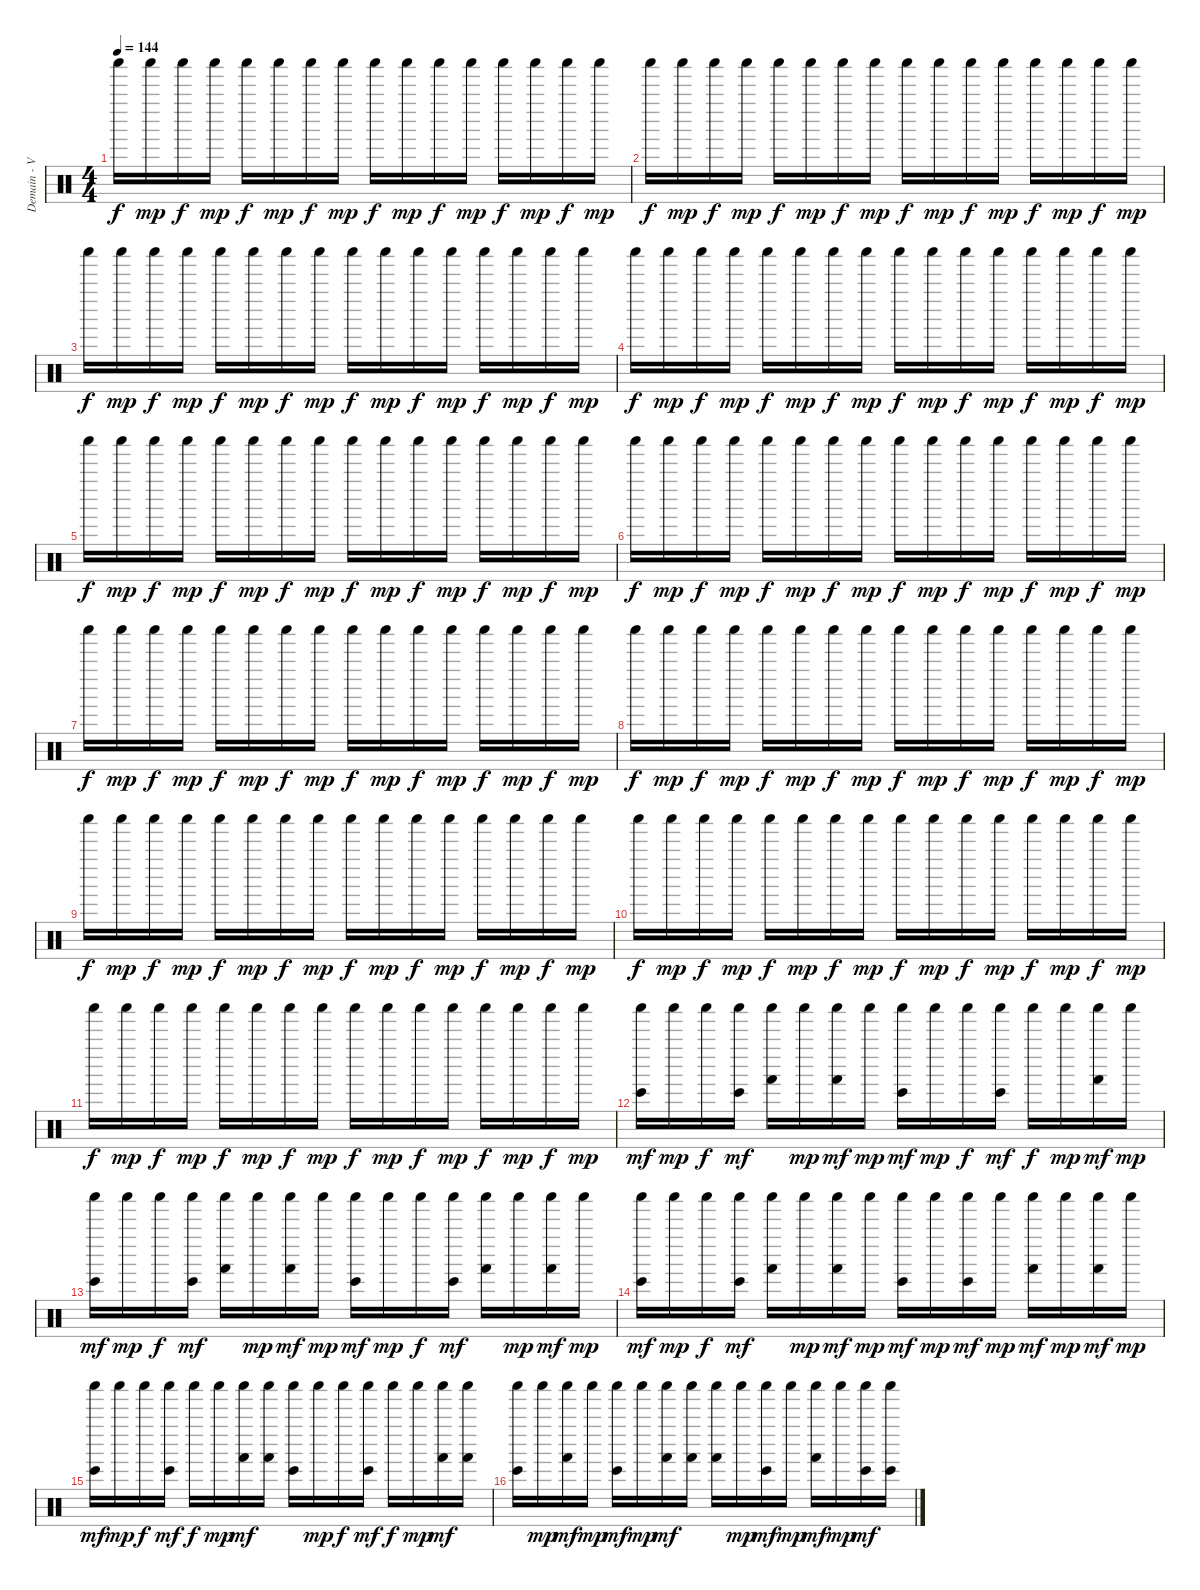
\track ("Demain - Various Perc." "Demain - V") {instrument percussion}
\staff {score}
\articulation defaults
\ts (4 4)
\tempo 144
\clef neutral
\ks c "Shaker (hit)".16{dy f} "Shaker (hit)".16{dy mp} "Shaker (hit)".16{dy f} "Shaker (hit)".16{dy mp} "Shaker (hit)".16{dy f} "Shaker (hit)".16{dy mp} "Shaker (hit)".16{dy f} "Shaker (hit)".16{dy mp} "Shaker (hit)".16{dy f} "Shaker (hit)".16{dy mp} "Shaker (hit)".16{dy f} "Shaker (hit)".16{dy mp} "Shaker (hit)".16{dy f} "Shaker (hit)".16{dy mp} "Shaker (hit)".16{dy f} "Shaker (hit)".16{dy mp}
|
"Shaker (hit)".16{dy f} "Shaker (hit)".16{dy mp} "Shaker (hit)".16{dy f} "Shaker (hit)".16{dy mp} "Shaker (hit)".16{dy f} "Shaker (hit)".16{dy mp} "Shaker (hit)".16{dy f} "Shaker (hit)".16{dy mp} "Shaker (hit)".16{dy f} "Shaker (hit)".16{dy mp} "Shaker (hit)".16{dy f} "Shaker (hit)".16{dy mp} "Shaker (hit)".16{dy f} "Shaker (hit)".16{dy mp} "Shaker (hit)".16{dy f} "Shaker (hit)".16{dy mp} |
"Shaker (hit)".16{dy f} "Shaker (hit)".16{dy mp} "Shaker (hit)".16{dy f} "Shaker (hit)".16{dy mp} "Shaker (hit)".16{dy f} "Shaker (hit)".16{dy mp} "Shaker (hit)".16{dy f} "Shaker (hit)".16{dy mp} "Shaker (hit)".16{dy f} "Shaker (hit)".16{dy mp} "Shaker (hit)".16{dy f} "Shaker (hit)".16{dy mp} "Shaker (hit)".16{dy f} "Shaker (hit)".16{dy mp} "Shaker (hit)".16{dy f} "Shaker (hit)".16{dy mp} |
"Shaker (hit)".16{dy f} "Shaker (hit)".16{dy mp} "Shaker (hit)".16{dy f} "Shaker (hit)".16{dy mp} "Shaker (hit)".16{dy f} "Shaker (hit)".16{dy mp} "Shaker (hit)".16{dy f} "Shaker (hit)".16{dy mp} "Shaker (hit)".16{dy f} "Shaker (hit)".16{dy mp} "Shaker (hit)".16{dy f} "Shaker (hit)".16{dy mp} "Shaker (hit)".16{dy f} "Shaker (hit)".16{dy mp} "Shaker (hit)".16{dy f} "Shaker (hit)".16{dy mp} |
"Shaker (hit)".16{dy f} "Shaker (hit)".16{dy mp} "Shaker (hit)".16{dy f} "Shaker (hit)".16{dy mp} "Shaker (hit)".16{dy f} "Shaker (hit)".16{dy mp} "Shaker (hit)".16{dy f} "Shaker (hit)".16{dy mp} "Shaker (hit)".16{dy f} "Shaker (hit)".16{dy mp} "Shaker (hit)".16{dy f} "Shaker (hit)".16{dy mp} "Shaker (hit)".16{dy f} "Shaker (hit)".16{dy mp} "Shaker (hit)".16{dy f} "Shaker (hit)".16{dy mp} |
"Shaker (hit)".16{dy f} "Shaker (hit)".16{dy mp} "Shaker (hit)".16{dy f} "Shaker (hit)".16{dy mp} "Shaker (hit)".16{dy f} "Shaker (hit)".16{dy mp} "Shaker (hit)".16{dy f} "Shaker (hit)".16{dy mp} "Shaker (hit)".16{dy f} "Shaker (hit)".16{dy mp} "Shaker (hit)".16{dy f} "Shaker (hit)".16{dy mp} "Shaker (hit)".16{dy f} "Shaker (hit)".16{dy mp} "Shaker (hit)".16{dy f} "Shaker (hit)".16{dy mp} |
"Shaker (hit)".16{dy f} "Shaker (hit)".16{dy mp} "Shaker (hit)".16{dy f} "Shaker (hit)".16{dy mp} "Shaker (hit)".16{dy f} "Shaker (hit)".16{dy mp} "Shaker (hit)".16{dy f} "Shaker (hit)".16{dy mp} "Shaker (hit)".16{dy f} "Shaker (hit)".16{dy mp} "Shaker (hit)".16{dy f} "Shaker (hit)".16{dy mp} "Shaker (hit)".16{dy f} "Shaker (hit)".16{dy mp} "Shaker (hit)".16{dy f} "Shaker (hit)".16{dy mp} |
"Shaker (hit)".16{dy f} "Shaker (hit)".16{dy mp} "Shaker (hit)".16{dy f} "Shaker (hit)".16{dy mp} "Shaker (hit)".16{dy f} "Shaker (hit)".16{dy mp} "Shaker (hit)".16{dy f} "Shaker (hit)".16{dy mp} "Shaker (hit)".16{dy f} "Shaker (hit)".16{dy mp} "Shaker (hit)".16{dy f} "Shaker (hit)".16{dy mp} "Shaker (hit)".16{dy f} "Shaker (hit)".16{dy mp} "Shaker (hit)".16{dy f} "Shaker (hit)".16{dy mp} |
"Shaker (hit)".16{dy f} "Shaker (hit)".16{dy mp} "Shaker (hit)".16{dy f} "Shaker (hit)".16{dy mp} "Shaker (hit)".16{dy f} "Shaker (hit)".16{dy mp} "Shaker (hit)".16{dy f} "Shaker (hit)".16{dy mp} "Shaker (hit)".16{dy f} "Shaker (hit)".16{dy mp} "Shaker (hit)".16{dy f} "Shaker (hit)".16{dy mp} "Shaker (hit)".16{dy f} "Shaker (hit)".16{dy mp} "Shaker (hit)".16{dy f} "Shaker (hit)".16{dy mp} |
"Shaker (hit)".16{dy f} "Shaker (hit)".16{dy mp} "Shaker (hit)".16{dy f} "Shaker (hit)".16{dy mp} "Shaker (hit)".16{dy f} "Shaker (hit)".16{dy mp} "Shaker (hit)".16{dy f} "Shaker (hit)".16{dy mp} "Shaker (hit)".16{dy f} "Shaker (hit)".16{dy mp} "Shaker (hit)".16{dy f} "Shaker (hit)".16{dy mp} "Shaker (hit)".16{dy f} "Shaker (hit)".16{dy mp} "Shaker (hit)".16{dy f} "Shaker (hit)".16{dy mp} |
"Shaker (hit)".16{dy f} "Shaker (hit)".16{dy mp} "Shaker (hit)".16{dy f} "Shaker (hit)".16{dy mp} "Shaker (hit)".16{dy f} "Shaker (hit)".16{dy mp} "Shaker (hit)".16{dy f} "Shaker (hit)".16{dy mp} "Shaker (hit)".16{dy f} "Shaker (hit)".16{dy mp} "Shaker (hit)".16{dy f} "Shaker (hit)".16{dy mp} "Shaker (hit)".16{dy f} "Shaker (hit)".16{dy mp} "Shaker (hit)".16{dy f} "Shaker (hit)".16{dy mp} |
("Shaker (hit)" "Bongo High (hit)").16{dy mf} "Shaker (hit)".16{dy mp} "Shaker (hit)".16{dy f} ("Shaker (hit)" "Bongo High (hit)").16{dy mf} ("Shaker (hit)" "Hand (hit)").16 "Shaker (hit)".16{dy mp} ("Shaker (hit)" "Hand (hit)").16{dy mf} "Shaker (hit)".16{dy mp} ("Shaker (hit)" "Bongo High (hit)").16{dy mf} "Shaker (hit)".16{dy mp} "Shaker (hit)".16{dy f} ("Shaker (hit)" "Bongo High (hit)").16{dy mf} "Shaker (hit)".16{dy f} "Shaker (hit)".16{dy mp} ("Shaker (hit)" "Hand (hit)").16{dy mf} "Shaker (hit)".16{dy mp} |
("Shaker (hit)" "Bongo High (hit)").16{dy mf} "Shaker (hit)".16{dy mp} "Shaker (hit)".16{dy f} ("Shaker (hit)" "Bongo High (hit)").16{dy mf} ("Shaker (hit)" "Hand (hit)").16 "Shaker (hit)".16{dy mp} ("Shaker (hit)" "Hand (hit)").16{dy mf} "Shaker (hit)".16{dy mp} ("Shaker (hit)" "Bongo High (hit)").16{dy mf} "Shaker (hit)".16{dy mp} "Shaker (hit)".16{dy f} ("Shaker (hit)" "Bongo High (hit)").16{dy mf} ("Shaker (hit)" "Hand (hit)").16 "Shaker (hit)".16{dy mp} ("Shaker (hit)" "Hand (hit)").16{dy mf} "Shaker (hit)".16{dy mp} |
("Shaker (hit)" "Bongo High (hit)").16{dy mf} "Shaker (hit)".16{dy mp} "Shaker (hit)".16{dy f} ("Shaker (hit)" "Bongo High (hit)").16{dy mf} ("Shaker (hit)" "Hand (hit)").16 "Shaker (hit)".16{dy mp} ("Shaker (hit)" "Hand (hit)").16{dy mf} "Shaker (hit)".16{dy mp} ("Shaker (hit)" "Bongo High (hit)").16{dy mf} "Shaker (hit)".16{dy mp} ("Shaker (hit)" "Bongo High (hit)").16{dy mf} "Shaker (hit)".16{dy mp} ("Shaker (hit)" "Hand (hit)").16{dy mf} "Shaker (hit)".16{dy mp} ("Shaker (hit)" "Hand (hit)").16{dy mf} "Shaker (hit)".16{dy mp} |
("Shaker (hit)" "Bongo High (hit)").16{dy mf} "Shaker (hit)".16{dy mp} "Shaker (hit)".16{dy f} ("Shaker (hit)" "Bongo High (hit)").16{dy mf} "Shaker (hit)".16{dy f} "Shaker (hit)".16{dy mp} ("Shaker (hit)" "Hand (hit)").16{dy mf} ("Shaker (hit)" "Hand (hit)").16 ("Shaker (hit)" "Bongo High (hit)").16 "Shaker (hit)".16{dy mp} "Shaker (hit)".16{dy f} ("Shaker (hit)" "Bongo High (hit)").16{dy mf} "Shaker (hit)".16{dy f} "Shaker (hit)".16{dy mp} ("Shaker (hit)" "Hand (hit)").16{dy mf} ("Shaker (hit)" "Hand (hit)").16 |
("Shaker (hit)" "Bongo High (hit)").16 "Shaker (hit)".16{dy mp} ("Shaker (hit)" "Hand (hit)").16{dy mf} "Shaker (hit)".16{dy mp} ("Shaker (hit)" "Bongo High (hit)").16{dy mf} "Shaker (hit)".16{dy mp} ("Shaker (hit)" "Hand (hit)").16{dy mf} ("Shaker (hit)" "Hand (hit)").16 ("Shaker (hit)" "Hand (hit)").16 "Shaker (hit)".16{dy mp} ("Shaker (hit)" "Bongo High (hit)").16{dy mf} "Shaker (hit)".16{dy mp} ("Shaker (hit)" "Hand (hit)").16{dy mf} "Shaker (hit)".16{dy mp} ("Shaker (hit)" "Bongo High (hit)").16{dy mf} ("Shaker (hit)" "Bongo High (hit)").16
